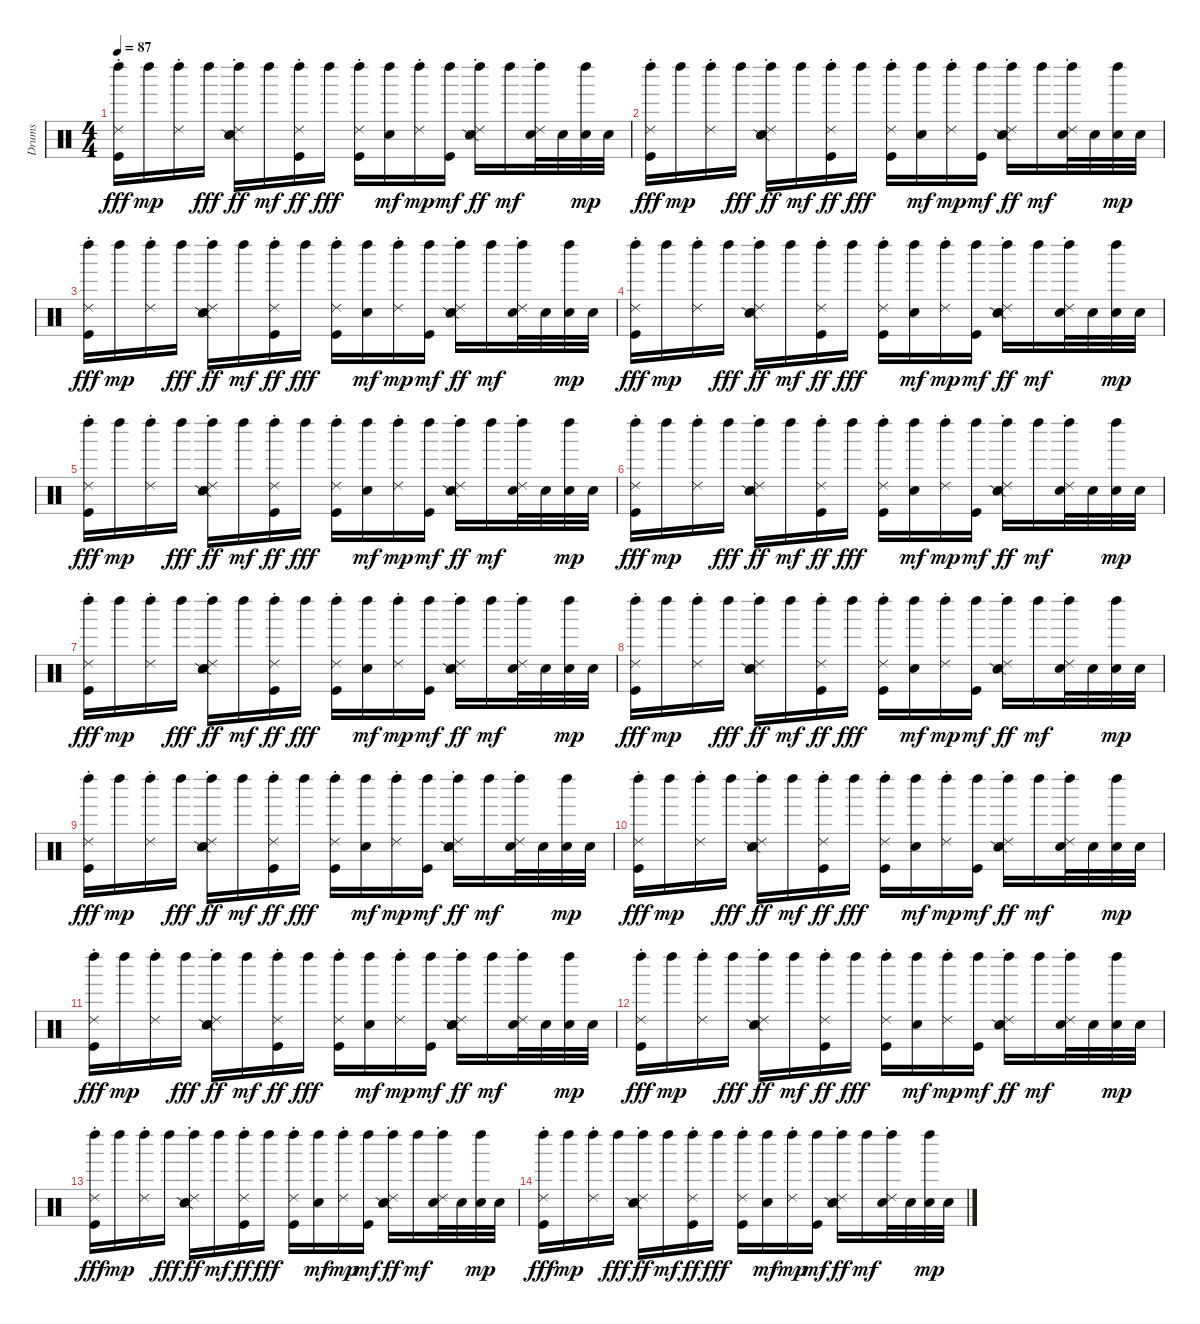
\track ("Drums" "Drums") {instrument percussion}
\staff {score}
\articulation defaults
\ts (4 4)
\tempo 87
\clef neutral
\ks c
("Left Maraca (hit)" "Ride (choke) 2" "Kick (hit)").16{dy fff} "Left Maraca (hit)".16{dy mp} ("Left Maraca (hit)" "Ride (choke) 2").16 "Left Maraca (hit)".16{dy fff} ("Left Maraca (hit)" "Ride (choke) 2" "Snare (side stick) 2" "Electric Snare (hit)").16{dy ff} "Left Maraca (hit)".16{dy mf} ("Left Maraca (hit)" "Ride (choke) 2" "Kick (hit)").16{dy ff} "Left Maraca (hit)".16{dy fff} ("Left Maraca (hit)" "Ride (choke) 2" "Kick (hit)").16 ("Left Maraca (hit)" "Electric Snare (hit)").16{dy mf} ("Left Maraca (hit)" "Ride (choke) 2").16{dy mp} ("Left Maraca (hit)" "Kick (hit)").16{dy mf} ("Left Maraca (hit)" "Ride (choke) 2" "Snare (side stick) 2" "Electric Snare (hit)").16{dy ff} "Left Maraca (hit)".16{dy mf} ("Left Maraca (hit)" "Ride (choke) 2" "Snare (hit) 2").32 "Electric Snare (hit)".32 ("Left Maraca (hit)" "Snare (hit) 2").32{dy mp} "Electric Snare (hit)".32 |
("Left Maraca (hit)" "Ride (choke) 2" "Kick (hit)").16{dy fff} "Left Maraca (hit)".16{dy mp} ("Left Maraca (hit)" "Ride (choke) 2").16 "Left Maraca (hit)".16{dy fff} ("Left Maraca (hit)" "Ride (choke) 2" "Snare (side stick) 2" "Electric Snare (hit)").16{dy ff} "Left Maraca (hit)".16{dy mf} ("Left Maraca (hit)" "Ride (choke) 2" "Kick (hit)").16{dy ff} "Left Maraca (hit)".16{dy fff} ("Left Maraca (hit)" "Ride (choke) 2" "Kick (hit)").16 ("Left Maraca (hit)" "Electric Snare (hit)").16{dy mf} ("Left Maraca (hit)" "Ride (choke) 2").16{dy mp} ("Left Maraca (hit)" "Kick (hit)").16{dy mf} ("Left Maraca (hit)" "Ride (choke) 2" "Snare (side stick) 2" "Electric Snare (hit)").16{dy ff} "Left Maraca (hit)".16{dy mf} ("Left Maraca (hit)" "Ride (choke) 2" "Snare (hit) 2").32 "Electric Snare (hit)".32 ("Left Maraca (hit)" "Snare (hit) 2").32{dy mp} "Electric Snare (hit)".32 |
("Left Maraca (hit)" "Ride (choke) 2" "Kick (hit)").16{dy fff} "Left Maraca (hit)".16{dy mp} ("Left Maraca (hit)" "Ride (choke) 2").16 "Left Maraca (hit)".16{dy fff} ("Left Maraca (hit)" "Ride (choke) 2" "Snare (side stick) 2" "Electric Snare (hit)").16{dy ff} "Left Maraca (hit)".16{dy mf} ("Left Maraca (hit)" "Ride (choke) 2" "Kick (hit)").16{dy ff} "Left Maraca (hit)".16{dy fff} ("Left Maraca (hit)" "Ride (choke) 2" "Kick (hit)").16 ("Left Maraca (hit)" "Electric Snare (hit)").16{dy mf} ("Left Maraca (hit)" "Ride (choke) 2").16{dy mp} ("Left Maraca (hit)" "Kick (hit)").16{dy mf} ("Left Maraca (hit)" "Ride (choke) 2" "Snare (side stick) 2" "Electric Snare (hit)").16{dy ff} "Left Maraca (hit)".16{dy mf} ("Left Maraca (hit)" "Ride (choke) 2" "Snare (hit) 2").32 "Electric Snare (hit)".32 ("Left Maraca (hit)" "Snare (hit) 2").32{dy mp} "Electric Snare (hit)".32 |
("Left Maraca (hit)" "Ride (choke) 2" "Kick (hit)").16{dy fff} "Left Maraca (hit)".16{dy mp} ("Left Maraca (hit)" "Ride (choke) 2").16 "Left Maraca (hit)".16{dy fff} ("Left Maraca (hit)" "Ride (choke) 2" "Snare (side stick) 2" "Electric Snare (hit)").16{dy ff} "Left Maraca (hit)".16{dy mf} ("Left Maraca (hit)" "Ride (choke) 2" "Kick (hit)").16{dy ff} "Left Maraca (hit)".16{dy fff} ("Left Maraca (hit)" "Ride (choke) 2" "Kick (hit)").16 ("Left Maraca (hit)" "Electric Snare (hit)").16{dy mf} ("Left Maraca (hit)" "Ride (choke) 2").16{dy mp} ("Left Maraca (hit)" "Kick (hit)").16{dy mf} ("Left Maraca (hit)" "Ride (choke) 2" "Snare (side stick) 2" "Electric Snare (hit)").16{dy ff} "Left Maraca (hit)".16{dy mf} ("Left Maraca (hit)" "Ride (choke) 2" "Snare (hit) 2").32 "Electric Snare (hit)".32 ("Left Maraca (hit)" "Snare (hit) 2").32{dy mp} "Electric Snare (hit)".32 |
("Left Maraca (hit)" "Ride (choke) 2" "Kick (hit)").16{dy fff} "Left Maraca (hit)".16{dy mp} ("Left Maraca (hit)" "Ride (choke) 2").16 "Left Maraca (hit)".16{dy fff} ("Left Maraca (hit)" "Ride (choke) 2" "Snare (side stick) 2" "Electric Snare (hit)").16{dy ff} "Left Maraca (hit)".16{dy mf} ("Left Maraca (hit)" "Ride (choke) 2" "Kick (hit)").16{dy ff} "Left Maraca (hit)".16{dy fff} ("Left Maraca (hit)" "Ride (choke) 2" "Kick (hit)").16 ("Left Maraca (hit)" "Electric Snare (hit)").16{dy mf} ("Left Maraca (hit)" "Ride (choke) 2").16{dy mp} ("Left Maraca (hit)" "Kick (hit)").16{dy mf} ("Left Maraca (hit)" "Ride (choke) 2" "Snare (side stick) 2" "Electric Snare (hit)").16{dy ff} "Left Maraca (hit)".16{dy mf} ("Left Maraca (hit)" "Ride (choke) 2" "Snare (hit) 2").32 "Electric Snare (hit)".32 ("Left Maraca (hit)" "Snare (hit) 2").32{dy mp} "Electric Snare (hit)".32 |
("Left Maraca (hit)" "Ride (choke) 2" "Kick (hit)").16{dy fff} "Left Maraca (hit)".16{dy mp} ("Left Maraca (hit)" "Ride (choke) 2").16 "Left Maraca (hit)".16{dy fff} ("Left Maraca (hit)" "Ride (choke) 2" "Snare (side stick) 2" "Electric Snare (hit)").16{dy ff} "Left Maraca (hit)".16{dy mf} ("Left Maraca (hit)" "Ride (choke) 2" "Kick (hit)").16{dy ff} "Left Maraca (hit)".16{dy fff} ("Left Maraca (hit)" "Ride (choke) 2" "Kick (hit)").16 ("Left Maraca (hit)" "Electric Snare (hit)").16{dy mf} ("Left Maraca (hit)" "Ride (choke) 2").16{dy mp} ("Left Maraca (hit)" "Kick (hit)").16{dy mf} ("Left Maraca (hit)" "Ride (choke) 2" "Snare (side stick) 2" "Electric Snare (hit)").16{dy ff} "Left Maraca (hit)".16{dy mf} ("Left Maraca (hit)" "Ride (choke) 2" "Snare (hit) 2").32 "Electric Snare (hit)".32 ("Left Maraca (hit)" "Snare (hit) 2").32{dy mp} "Electric Snare (hit)".32 |
("Left Maraca (hit)" "Ride (choke) 2" "Kick (hit)").16{dy fff} "Left Maraca (hit)".16{dy mp} ("Left Maraca (hit)" "Ride (choke) 2").16 "Left Maraca (hit)".16{dy fff} ("Left Maraca (hit)" "Ride (choke) 2" "Snare (side stick) 2" "Electric Snare (hit)").16{dy ff} "Left Maraca (hit)".16{dy mf} ("Left Maraca (hit)" "Ride (choke) 2" "Kick (hit)").16{dy ff} "Left Maraca (hit)".16{dy fff} ("Left Maraca (hit)" "Ride (choke) 2" "Kick (hit)").16 ("Left Maraca (hit)" "Electric Snare (hit)").16{dy mf} ("Left Maraca (hit)" "Ride (choke) 2").16{dy mp} ("Left Maraca (hit)" "Kick (hit)").16{dy mf} ("Left Maraca (hit)" "Ride (choke) 2" "Snare (side stick) 2" "Electric Snare (hit)").16{dy ff} "Left Maraca (hit)".16{dy mf} ("Left Maraca (hit)" "Ride (choke) 2" "Snare (hit) 2").32 "Electric Snare (hit)".32 ("Left Maraca (hit)" "Snare (hit) 2").32{dy mp} "Electric Snare (hit)".32 |
("Left Maraca (hit)" "Ride (choke) 2" "Kick (hit)").16{dy fff} "Left Maraca (hit)".16{dy mp} ("Left Maraca (hit)" "Ride (choke) 2").16 "Left Maraca (hit)".16{dy fff} ("Left Maraca (hit)" "Ride (choke) 2" "Snare (side stick) 2" "Electric Snare (hit)").16{dy ff} "Left Maraca (hit)".16{dy mf} ("Left Maraca (hit)" "Ride (choke) 2" "Kick (hit)").16{dy ff} "Left Maraca (hit)".16{dy fff} ("Left Maraca (hit)" "Ride (choke) 2" "Kick (hit)").16 ("Left Maraca (hit)" "Electric Snare (hit)").16{dy mf} ("Left Maraca (hit)" "Ride (choke) 2").16{dy mp} ("Left Maraca (hit)" "Kick (hit)").16{dy mf} ("Left Maraca (hit)" "Ride (choke) 2" "Snare (side stick) 2" "Electric Snare (hit)").16{dy ff} "Left Maraca (hit)".16{dy mf} ("Left Maraca (hit)" "Ride (choke) 2" "Snare (hit) 2").32 "Electric Snare (hit)".32 ("Left Maraca (hit)" "Snare (hit) 2").32{dy mp} "Electric Snare (hit)".32 |
("Left Maraca (hit)" "Ride (choke) 2" "Kick (hit)").16{dy fff} "Left Maraca (hit)".16{dy mp} ("Left Maraca (hit)" "Ride (choke) 2").16 "Left Maraca (hit)".16{dy fff} ("Left Maraca (hit)" "Ride (choke) 2" "Snare (side stick) 2" "Electric Snare (hit)").16{dy ff} "Left Maraca (hit)".16{dy mf} ("Left Maraca (hit)" "Ride (choke) 2" "Kick (hit)").16{dy ff} "Left Maraca (hit)".16{dy fff} ("Left Maraca (hit)" "Ride (choke) 2" "Kick (hit)").16 ("Left Maraca (hit)" "Electric Snare (hit)").16{dy mf} ("Left Maraca (hit)" "Ride (choke) 2").16{dy mp} ("Left Maraca (hit)" "Kick (hit)").16{dy mf} ("Left Maraca (hit)" "Ride (choke) 2" "Snare (side stick) 2" "Electric Snare (hit)").16{dy ff} "Left Maraca (hit)".16{dy mf} ("Left Maraca (hit)" "Ride (choke) 2" "Snare (hit) 2").32 "Electric Snare (hit)".32 ("Left Maraca (hit)" "Snare (hit) 2").32{dy mp} "Electric Snare (hit)".32 |
("Left Maraca (hit)" "Ride (choke) 2" "Kick (hit)").16{dy fff} "Left Maraca (hit)".16{dy mp} ("Left Maraca (hit)" "Ride (choke) 2").16 "Left Maraca (hit)".16{dy fff} ("Left Maraca (hit)" "Ride (choke) 2" "Snare (side stick) 2" "Electric Snare (hit)").16{dy ff} "Left Maraca (hit)".16{dy mf} ("Left Maraca (hit)" "Ride (choke) 2" "Kick (hit)").16{dy ff} "Left Maraca (hit)".16{dy fff} ("Left Maraca (hit)" "Ride (choke) 2" "Kick (hit)").16 ("Left Maraca (hit)" "Electric Snare (hit)").16{dy mf} ("Left Maraca (hit)" "Ride (choke) 2").16{dy mp} ("Left Maraca (hit)" "Kick (hit)").16{dy mf} ("Left Maraca (hit)" "Ride (choke) 2" "Snare (side stick) 2" "Electric Snare (hit)").16{dy ff} "Left Maraca (hit)".16{dy mf} ("Left Maraca (hit)" "Ride (choke) 2" "Snare (hit) 2").32 "Electric Snare (hit)".32 ("Left Maraca (hit)" "Snare (hit) 2").32{dy mp} "Electric Snare (hit)".32 |
("Left Maraca (hit)" "Ride (choke) 2" "Kick (hit)").16{dy fff} "Left Maraca (hit)".16{dy mp} ("Left Maraca (hit)" "Ride (choke) 2").16 "Left Maraca (hit)".16{dy fff} ("Left Maraca (hit)" "Ride (choke) 2" "Snare (side stick) 2" "Electric Snare (hit)").16{dy ff} "Left Maraca (hit)".16{dy mf} ("Left Maraca (hit)" "Ride (choke) 2" "Kick (hit)").16{dy ff} "Left Maraca (hit)".16{dy fff} ("Left Maraca (hit)" "Ride (choke) 2" "Kick (hit)").16 ("Left Maraca (hit)" "Electric Snare (hit)").16{dy mf} ("Left Maraca (hit)" "Ride (choke) 2").16{dy mp} ("Left Maraca (hit)" "Kick (hit)").16{dy mf} ("Left Maraca (hit)" "Ride (choke) 2" "Snare (side stick) 2" "Electric Snare (hit)").16{dy ff} "Left Maraca (hit)".16{dy mf} ("Left Maraca (hit)" "Ride (choke) 2" "Snare (hit) 2").32 "Electric Snare (hit)".32 ("Left Maraca (hit)" "Snare (hit) 2").32{dy mp} "Electric Snare (hit)".32 |
("Left Maraca (hit)" "Ride (choke) 2" "Kick (hit)").16{dy fff} "Left Maraca (hit)".16{dy mp} ("Left Maraca (hit)" "Ride (choke) 2").16 "Left Maraca (hit)".16{dy fff} ("Left Maraca (hit)" "Ride (choke) 2" "Snare (side stick) 2" "Electric Snare (hit)").16{dy ff} "Left Maraca (hit)".16{dy mf} ("Left Maraca (hit)" "Ride (choke) 2" "Kick (hit)").16{dy ff} "Left Maraca (hit)".16{dy fff} ("Left Maraca (hit)" "Ride (choke) 2" "Kick (hit)").16 ("Left Maraca (hit)" "Electric Snare (hit)").16{dy mf} ("Left Maraca (hit)" "Ride (choke) 2").16{dy mp} ("Left Maraca (hit)" "Kick (hit)").16{dy mf} ("Left Maraca (hit)" "Ride (choke) 2" "Snare (side stick) 2" "Electric Snare (hit)").16{dy ff} "Left Maraca (hit)".16{dy mf} ("Left Maraca (hit)" "Ride (choke) 2" "Snare (hit) 2").32 "Electric Snare (hit)".32 ("Left Maraca (hit)" "Snare (hit) 2").32{dy mp} "Electric Snare (hit)".32 |
("Left Maraca (hit)" "Ride (choke) 2" "Kick (hit)").16{dy fff} "Left Maraca (hit)".16{dy mp} ("Left Maraca (hit)" "Ride (choke) 2").16 "Left Maraca (hit)".16{dy fff} ("Left Maraca (hit)" "Ride (choke) 2" "Snare (side stick) 2" "Electric Snare (hit)").16{dy ff} "Left Maraca (hit)".16{dy mf} ("Left Maraca (hit)" "Ride (choke) 2" "Kick (hit)").16{dy ff} "Left Maraca (hit)".16{dy fff} ("Left Maraca (hit)" "Ride (choke) 2" "Kick (hit)").16 ("Left Maraca (hit)" "Electric Snare (hit)").16{dy mf} ("Left Maraca (hit)" "Ride (choke) 2").16{dy mp} ("Left Maraca (hit)" "Kick (hit)").16{dy mf} ("Left Maraca (hit)" "Ride (choke) 2" "Snare (side stick) 2" "Electric Snare (hit)").16{dy ff} "Left Maraca (hit)".16{dy mf} ("Left Maraca (hit)" "Ride (choke) 2" "Snare (hit) 2").32 "Electric Snare (hit)".32 ("Left Maraca (hit)" "Snare (hit) 2").32{dy mp} "Electric Snare (hit)".32 |
("Left Maraca (hit)" "Ride (choke) 2" "Kick (hit)").16{dy fff} "Left Maraca (hit)".16{dy mp} ("Left Maraca (hit)" "Ride (choke) 2").16 "Left Maraca (hit)".16{dy fff} ("Left Maraca (hit)" "Ride (choke) 2" "Snare (side stick) 2" "Electric Snare (hit)").16{dy ff} "Left Maraca (hit)".16{dy mf} ("Left Maraca (hit)" "Ride (choke) 2" "Kick (hit)").16{dy ff} "Left Maraca (hit)".16{dy fff} ("Left Maraca (hit)" "Ride (choke) 2" "Kick (hit)").16 ("Left Maraca (hit)" "Electric Snare (hit)").16{dy mf} ("Left Maraca (hit)" "Ride (choke) 2").16{dy mp} ("Left Maraca (hit)" "Kick (hit)").16{dy mf} ("Left Maraca (hit)" "Ride (choke) 2" "Snare (side stick) 2" "Electric Snare (hit)").16{dy ff} "Left Maraca (hit)".16{dy mf} ("Left Maraca (hit)" "Ride (choke) 2" "Snare (hit) 2").32 "Electric Snare (hit)".32 ("Left Maraca (hit)" "Snare (hit) 2").32{dy mp} "Electric Snare (hit)".32
